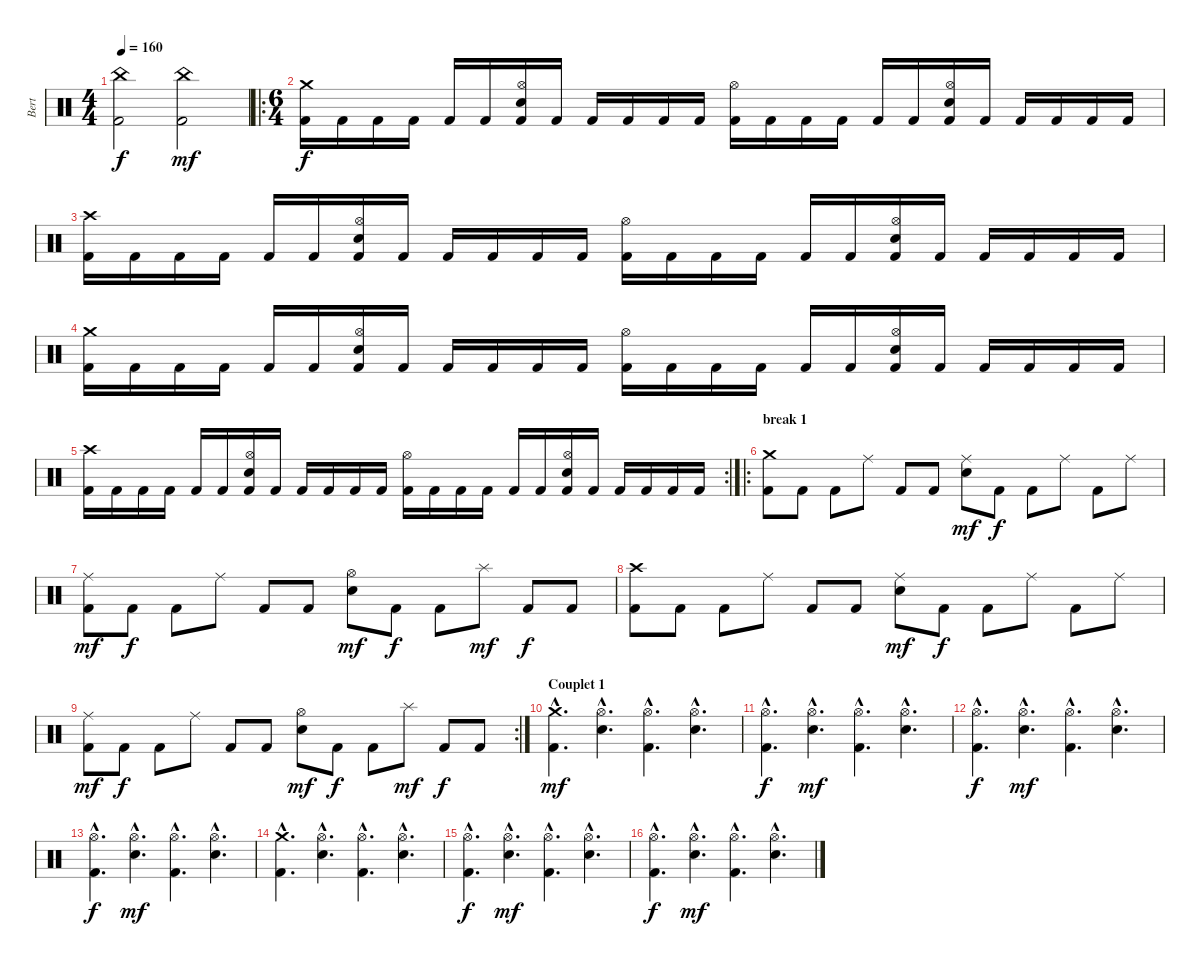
\track ("Bert" "Bert") {instrument percussion}
\staff {score}
\articulation defaults
\ts (4 4)
\tempo 160
\clef neutral
\ks c
("China (hit)" "Kick (hit) 2").2{dy f} ("China (hit)" "Kick (hit) 2").2{dy mf} |
\ro
\ts (6 4)
("Crash medium (hit)" "Kick (hit) 2").16{dy f} "Kick (hit) 2".16 "Kick (hit) 2".16 "Kick (hit) 2".16 "Kick (hit) 2".16 "Kick (hit) 2".16 ("Hi-Hat (open)" "Snare (hit) 2" "Kick (hit) 2").16 "Kick (hit) 2".16 "Kick (hit) 2".16 "Kick (hit) 2".16 "Kick (hit) 2".16 "Kick (hit) 2".16 ("Hi-Hat (open)" "Kick (hit) 2").16 "Kick (hit) 2".16 "Kick (hit) 2".16 "Kick (hit) 2".16 "Kick (hit) 2".16 "Kick (hit) 2".16 ("Hi-Hat (open)" "Snare (hit) 2" "Kick (hit) 2").16 "Kick (hit) 2".16 "Kick (hit) 2".16 "Kick (hit) 2".16 "Kick (hit) 2".16 "Kick (hit) 2".16 |
("Crash high (hit)" "Kick (hit) 2").16 "Kick (hit) 2".16 "Kick (hit) 2".16 "Kick (hit) 2".16 "Kick (hit) 2".16 "Kick (hit) 2".16 ("Hi-Hat (open)" "Snare (hit) 2" "Kick (hit) 2").16 "Kick (hit) 2".16 "Kick (hit) 2".16 "Kick (hit) 2".16 "Kick (hit) 2".16 "Kick (hit) 2".16 ("Hi-Hat (open)" "Kick (hit) 2").16 "Kick (hit) 2".16 "Kick (hit) 2".16 "Kick (hit) 2".16 "Kick (hit) 2".16 "Kick (hit) 2".16 ("Hi-Hat (open)" "Snare (hit) 2" "Kick (hit) 2").16 "Kick (hit) 2".16 "Kick (hit) 2".16 "Kick (hit) 2".16 "Kick (hit) 2".16 "Kick (hit) 2".16 |
("Crash medium (hit)" "Kick (hit) 2").16 "Kick (hit) 2".16 "Kick (hit) 2".16 "Kick (hit) 2".16 "Kick (hit) 2".16 "Kick (hit) 2".16 ("Hi-Hat (open)" "Snare (hit) 2" "Kick (hit) 2").16 "Kick (hit) 2".16 "Kick (hit) 2".16 "Kick (hit) 2".16 "Kick (hit) 2".16 "Kick (hit) 2".16 ("Hi-Hat (open)" "Kick (hit) 2").16 "Kick (hit) 2".16 "Kick (hit) 2".16 "Kick (hit) 2".16 "Kick (hit) 2".16 "Kick (hit) 2".16 ("Hi-Hat (open)" "Snare (hit) 2" "Kick (hit) 2").16 "Kick (hit) 2".16 "Kick (hit) 2".16 "Kick (hit) 2".16 "Kick (hit) 2".16 "Kick (hit) 2".16 |
\rc 2
("Crash high (hit)" "Kick (hit) 2").16 "Kick (hit) 2".16 "Kick (hit) 2".16 "Kick (hit) 2".16 "Kick (hit) 2".16 "Kick (hit) 2".16 ("Hi-Hat (open)" "Snare (hit) 2" "Kick (hit) 2").16 "Kick (hit) 2".16 "Kick (hit) 2".16 "Kick (hit) 2".16 "Kick (hit) 2".16 "Kick (hit) 2".16 ("Hi-Hat (open)" "Kick (hit) 2").16 "Kick (hit) 2".16 "Kick (hit) 2".16 "Kick (hit) 2".16 "Kick (hit) 2".16 "Kick (hit) 2".16 ("Hi-Hat (open)" "Snare (hit) 2" "Kick (hit) 2").16 "Kick (hit) 2".16 "Kick (hit) 2".16 "Kick (hit) 2".16 "Kick (hit) 2".16 "Kick (hit) 2".16 |
\ro
\section ("" "break 1")
("Crash medium (hit)" "Kick (hit) 2").8 "Kick (hit) 2".8 "Kick (hit) 2".8 "Ride (middle)".8 "Kick (hit) 2".8 "Kick (hit) 2".8 ("Ride (middle)" "Snare (hit) 2").8{dy mf} "Kick (hit) 2".8{dy f} "Kick (hit) 2".8 "Ride (middle)".8 "Kick (hit) 2".8 "Ride (middle)".8 |
("Ride (middle)" "Kick (hit) 2").8{dy mf} "Kick (hit) 2".8{dy f} "Kick (hit) 2".8 "Ride (middle)".8 "Kick (hit) 2".8 "Kick (hit) 2".8 ("Hi-Hat (open)" "Snare (hit) 2").8{dy mf} "Kick (hit) 2".8{dy f} "Kick (hit) 2".8 "Splash (hit)".8{dy mf} "Kick (hit) 2".8{dy f} "Kick (hit) 2".8 |
("Crash high (hit)" "Kick (hit) 2").8 "Kick (hit) 2".8 "Kick (hit) 2".8 "Ride (middle)".8 "Kick (hit) 2".8 "Kick (hit) 2".8 ("Ride (middle)" "Snare (hit) 2").8{dy mf} "Kick (hit) 2".8{dy f} "Kick (hit) 2".8 "Ride (middle)".8 "Kick (hit) 2".8 "Ride (middle)".8 |
\rc 2
("Ride (middle)" "Kick (hit) 2").8{dy mf} "Kick (hit) 2".8{dy f} "Kick (hit) 2".8 "Ride (middle)".8 "Kick (hit) 2".8 "Kick (hit) 2".8 ("Hi-Hat (open)" "Snare (hit) 2").8{dy mf} "Kick (hit) 2".8{dy f} "Kick (hit) 2".8 "Splash (hit)".8{dy mf} "Kick (hit) 2".8{dy f} "Kick (hit) 2".8 |
\section ("" "Couplet 1")
("Crash medium (hit)"{hac} "Kick (hit) 2"{hac}).4{d dy mf} ("Hi-Hat (open)"{hac} "Snare (hit) 2"{hac}).4{d} ("Hi-Hat (open)"{hac} "Kick (hit) 2"{hac}).4{d} ("Hi-Hat (open)"{hac} "Snare (hit) 2"{hac}).4{d} |
("Hi-Hat (open)"{hac} "Kick (hit) 2"{hac}).4{d dy f} ("Hi-Hat (open)"{hac} "Snare (hit) 2"{hac}).4{d dy mf} ("Hi-Hat (open)"{hac} "Kick (hit) 2"{hac}).4{d} ("Hi-Hat (open)"{hac} "Snare (hit) 2"{hac}).4{d} |
("Hi-Hat (open)"{hac} "Kick (hit) 2"{hac}).4{d dy f} ("Hi-Hat (open)"{hac} "Snare (hit) 2"{hac}).4{d dy mf} ("Hi-Hat (open)"{hac} "Kick (hit) 2"{hac}).4{d} ("Hi-Hat (open)"{hac} "Snare (hit) 2"{hac}).4{d} |
("Hi-Hat (open)"{hac} "Kick (hit) 2"{hac}).4{d dy f} ("Hi-Hat (open)"{hac} "Snare (hit) 2"{hac}).4{d dy mf} ("Hi-Hat (open)"{hac} "Kick (hit) 2"{hac}).4{d} ("Hi-Hat (open)"{hac} "Snare (hit) 2"{hac}).4{d} |
("Crash medium (hit)"{hac} "Kick (hit) 2"{hac}).4{d} ("Hi-Hat (open)"{hac} "Snare (hit) 2"{hac}).4{d} ("Hi-Hat (open)"{hac} "Kick (hit) 2"{hac}).4{d} ("Hi-Hat (open)"{hac} "Snare (hit) 2"{hac}).4{d} |
("Hi-Hat (open)"{hac} "Kick (hit) 2"{hac}).4{d dy f} ("Hi-Hat (open)"{hac} "Snare (hit) 2"{hac}).4{d dy mf} ("Hi-Hat (open)"{hac} "Kick (hit) 2"{hac}).4{d} ("Hi-Hat (open)"{hac} "Snare (hit) 2"{hac}).4{d} |
("Hi-Hat (open)"{hac} "Kick (hit) 2"{hac}).4{d dy f} ("Hi-Hat (open)"{hac} "Snare (hit) 2"{hac}).4{d dy mf} ("Hi-Hat (open)"{hac} "Kick (hit) 2"{hac}).4{d} ("Hi-Hat (open)"{hac} "Snare (hit) 2"{hac}).4{d}
